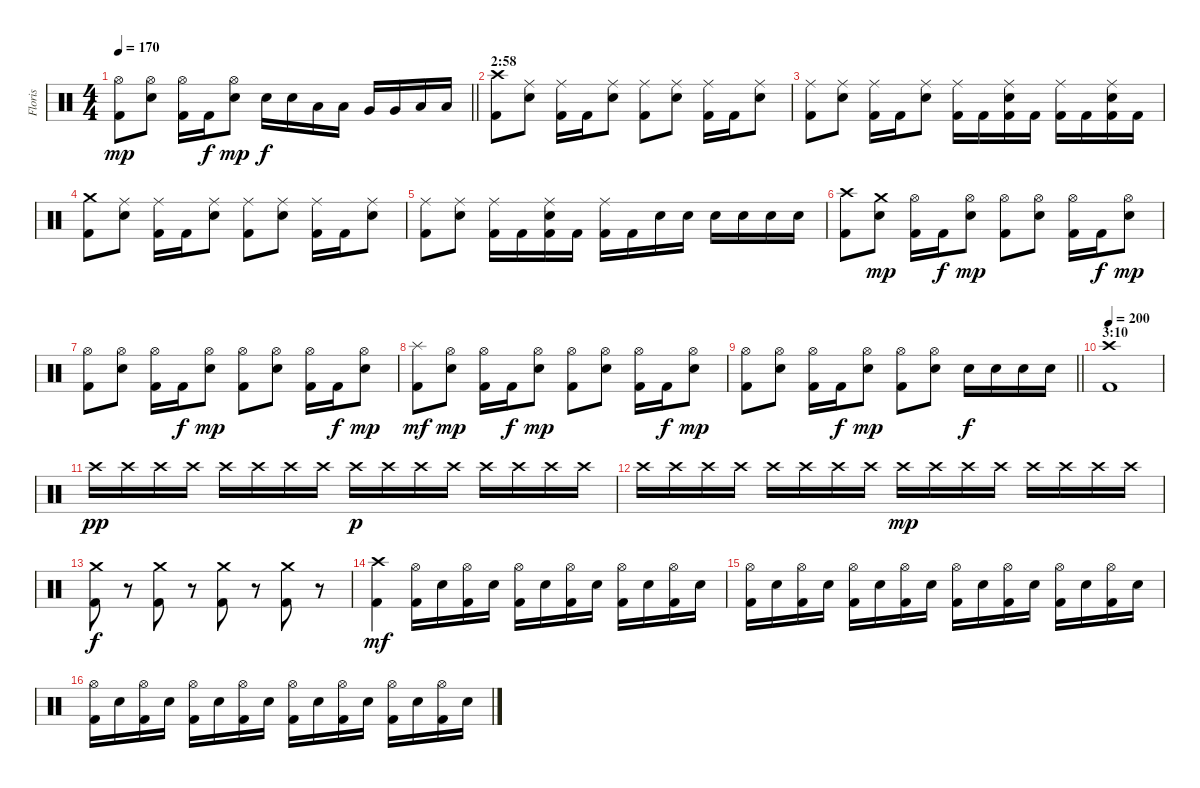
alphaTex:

\track ("Floris" "Floris") {instrument percussion}
\staff {score}
\articulation defaults
\ts (4 4)
\tempo 170
\clef neutral
\barLineRight lightlight
\ks c
("Hi-Hat (open)" "Kick (hit) 2").8{dy mp} ("Hi-Hat (open)" "Electric Snare (hit)").8 ("Hi-Hat (open)" "Kick (hit) 2").16 "Kick (hit) 2".16{dy f} ("Hi-Hat (open)" "Electric Snare (hit)").8{dy mp} "Electric Snare (hit)".16{dy f} "Electric Snare (hit)".16 "Low Tom (hit)".16 "Low Tom (hit)".16 "Very Low Tom (hit)".16 "Very Low Tom (hit)".16 "Low Floor Tom (hit)".16 "Low Floor Tom (hit)".16 |
\section ("" "2:58")
("Crash high (hit)" "Kick (hit) 2").8 ("Ride (middle)" "Electric Snare (hit)").8 ("Ride (middle)" "Kick (hit) 2").16 "Kick (hit) 2".16 ("Ride (middle)" "Electric Snare (hit)").8 ("Ride (middle)" "Kick (hit) 2").8 ("Ride (middle)" "Electric Snare (hit)").8 ("Ride (middle)" "Kick (hit) 2").16 "Kick (hit) 2".16 ("Ride (middle)" "Electric Snare (hit)").8 |
("Ride (middle)" "Kick (hit) 2").8 ("Ride (middle)" "Electric Snare (hit)").8 ("Ride (middle)" "Kick (hit) 2").16 "Kick (hit) 2".16 ("Ride (middle)" "Electric Snare (hit)").8 ("Ride (middle)" "Kick (hit) 2").16 "Kick (hit) 2".16 ("Ride (middle)" "Electric Snare (hit)" "Kick (hit) 2").16 "Kick (hit) 2".16 ("Ride (middle)" "Kick (hit) 2").16 "Kick (hit) 2".16 ("Ride (middle)" "Electric Snare (hit)" "Kick (hit) 2").16 "Kick (hit) 2".16 |
("Crash medium (hit)" "Kick (hit) 2").8 ("Ride (middle)" "Electric Snare (hit)").8 ("Ride (middle)" "Kick (hit) 2").16 "Kick (hit) 2".16 ("Ride (middle)" "Electric Snare (hit)").8 ("Ride (middle)" "Kick (hit) 2").8 ("Ride (middle)" "Electric Snare (hit)").8 ("Ride (middle)" "Kick (hit) 2").16 "Kick (hit) 2".16 ("Ride (middle)" "Electric Snare (hit)").8 |
("Ride (middle)" "Kick (hit) 2").8 ("Ride (middle)" "Electric Snare (hit)").8 ("Ride (middle)" "Kick (hit) 2").16 "Kick (hit) 2".16 ("Ride (middle)" "Electric Snare (hit)" "Kick (hit) 2").16 "Kick (hit) 2".16 ("Ride (middle)" "Kick (hit) 2").16 "Kick (hit) 2".16 "Electric Snare (hit)".16 "Electric Snare (hit)".16 "Electric Snare (hit)".16 "Electric Snare (hit)".16 "Electric Snare (hit)".16 "Electric Snare (hit)".16 |
("Crash high (hit)" "Kick (hit) 2").8 ("Crash medium (hit)" "Electric Snare (hit)").8{dy mp} ("Hi-Hat (open)" "Kick (hit) 2").16 "Kick (hit) 2".16{dy f} ("Hi-Hat (open)" "Electric Snare (hit)").8{dy mp} ("Hi-Hat (open)" "Kick (hit) 2").8 ("Hi-Hat (open)" "Electric Snare (hit)").8 ("Hi-Hat (open)" "Kick (hit) 2").16 "Kick (hit) 2".16{dy f} ("Hi-Hat (open)" "Electric Snare (hit)").8{dy mp} |
("Hi-Hat (open)" "Kick (hit) 2").8 ("Hi-Hat (open)" "Electric Snare (hit)").8 ("Hi-Hat (open)" "Kick (hit) 2").16 "Kick (hit) 2".16{dy f} ("Hi-Hat (open)" "Electric Snare (hit)").8{dy mp} ("Hi-Hat (open)" "Kick (hit) 2").8 ("Hi-Hat (open)" "Electric Snare (hit)").8 ("Hi-Hat (open)" "Kick (hit) 2").16 "Kick (hit) 2".16{dy f} ("Hi-Hat (open)" "Electric Snare (hit)").8{dy mp} |
("Splash (hit)" "Kick (hit) 2").8{dy mf} ("Hi-Hat (open)" "Electric Snare (hit)").8{dy mp} ("Hi-Hat (open)" "Kick (hit) 2").16 "Kick (hit) 2".16{dy f} ("Hi-Hat (open)" "Electric Snare (hit)").8{dy mp} ("Hi-Hat (open)" "Kick (hit) 2").8 ("Hi-Hat (open)" "Electric Snare (hit)").8 ("Hi-Hat (open)" "Kick (hit) 2").16 "Kick (hit) 2".16{dy f} ("Hi-Hat (open)" "Electric Snare (hit)").8{dy mp} |
\barLineRight lightlight
("Hi-Hat (open)" "Kick (hit) 2").8 ("Hi-Hat (open)" "Electric Snare (hit)").8 ("Hi-Hat (open)" "Kick (hit) 2").16 "Kick (hit) 2".16{dy f} ("Hi-Hat (open)" "Electric Snare (hit)").8{dy mp} ("Hi-Hat (open)" "Kick (hit) 2").8 ("Hi-Hat (open)" "Electric Snare (hit)").8 "Electric Snare (hit)".16{dy f} "Electric Snare (hit)".16 "Electric Snare (hit)".16 "Electric Snare (hit)".16 |
\section ("" "3:10")
\tempo 200
("Crash high (hit)" "Kick (hit) 2").1 |
"Crash high (hit)".16{dy pp} "Crash high (hit)".16 "Crash high (hit)".16 "Crash high (hit)".16 "Crash high (hit)".16 "Crash high (hit)".16 "Crash high (hit)".16 "Crash high (hit)".16 "Crash high (hit)".16{dy p} "Crash high (hit)".16 "Crash high (hit)".16 "Crash high (hit)".16 "Crash high (hit)".16 "Crash high (hit)".16 "Crash high (hit)".16 "Crash high (hit)".16 |
"Crash high (hit)".16 "Crash high (hit)".16 "Crash high (hit)".16 "Crash high (hit)".16 "Crash high (hit)".16 "Crash high (hit)".16 "Crash high (hit)".16 "Crash high (hit)".16 "Crash high (hit)".16{dy mp} "Crash high (hit)".16 "Crash high (hit)".16 "Crash high (hit)".16 "Crash high (hit)".16 "Crash high (hit)".16 "Crash high (hit)".16 "Crash high (hit)".16 |
("Crash medium (hit)" "Kick (hit) 2").8{dy f} r.8{volume 0} ("Crash medium (hit)" "Kick (hit) 2").8{volume 16} r.8{volume 0} ("Crash medium (hit)" "Kick (hit) 2").8{volume 16} r.8{volume 0} ("Crash medium (hit)" "Kick (hit) 2").8{volume 16} r.8{volume 0} |
("Crash high (hit)" "Kick (hit) 2").4{dy mf volume 16} ("Hi-Hat (open)" "Kick (hit) 2").16 "Electric Snare (hit)".16 ("Hi-Hat (open)" "Kick (hit) 2").16 "Electric Snare (hit)".16 ("Hi-Hat (open)" "Kick (hit) 2").16 "Electric Snare (hit)".16 ("Hi-Hat (open)" "Kick (hit) 2").16 "Electric Snare (hit)".16 ("Hi-Hat (open)" "Kick (hit) 2").16 "Electric Snare (hit)".16 ("Hi-Hat (open)" "Kick (hit) 2").16 "Electric Snare (hit)".16 |
("Hi-Hat (open)" "Kick (hit) 2").16 "Electric Snare (hit)".16 ("Hi-Hat (open)" "Kick (hit) 2").16 "Electric Snare (hit)".16 ("Hi-Hat (open)" "Kick (hit) 2").16 "Electric Snare (hit)".16 ("Hi-Hat (open)" "Kick (hit) 2").16 "Electric Snare (hit)".16 ("Hi-Hat (open)" "Kick (hit) 2").16 "Electric Snare (hit)".16 ("Hi-Hat (open)" "Kick (hit) 2").16 "Electric Snare (hit)".16 ("Hi-Hat (open)" "Kick (hit) 2").16 "Electric Snare (hit)".16 ("Hi-Hat (open)" "Kick (hit) 2").16 "Electric Snare (hit)".16 |
("Hi-Hat (open)" "Kick (hit) 2").16 "Electric Snare (hit)".16 ("Hi-Hat (open)" "Kick (hit) 2").16 "Electric Snare (hit)".16 ("Hi-Hat (open)" "Kick (hit) 2").16 "Electric Snare (hit)".16 ("Hi-Hat (open)" "Kick (hit) 2").16 "Electric Snare (hit)".16 ("Hi-Hat (open)" "Kick (hit) 2").16 "Electric Snare (hit)".16 ("Hi-Hat (open)" "Kick (hit) 2").16 "Electric Snare (hit)".16 ("Hi-Hat (open)" "Kick (hit) 2").16 "Electric Snare (hit)".16 ("Hi-Hat (open)" "Kick (hit) 2").16 "Electric Snare (hit)".16
